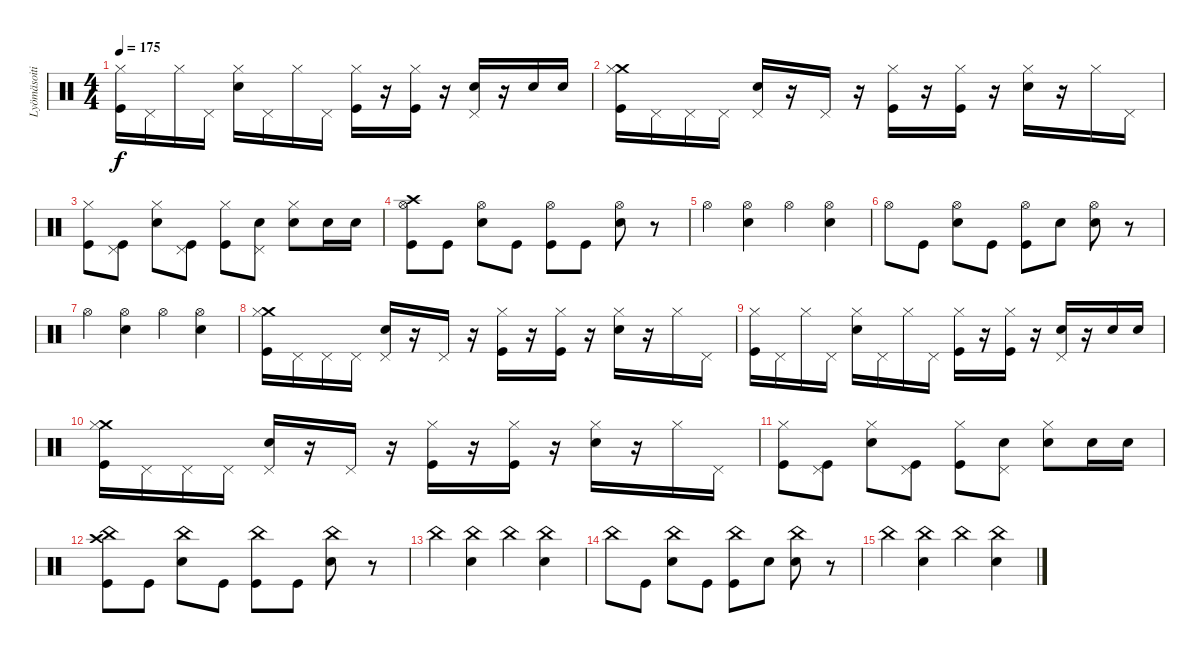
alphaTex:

\track ("Lyömäsoitin" "Lyömäsoiti") {instrument percussion}
\staff {score}
\articulation defaults
\ts (4 4)
\tempo 175
\clef neutral
\ks c
("Hi-Hat (closed)" "Kick (hit)").16{dy f} "Pedal Hi-Hat (hit)".16 "Hi-Hat (closed)".16 "Pedal Hi-Hat (hit)".16 ("Hi-Hat (closed)" "Snare (hit) 2").16 "Pedal Hi-Hat (hit)".16 "Hi-Hat (closed)".16 "Pedal Hi-Hat (hit)".16 ("Hi-Hat (closed)" "Kick (hit)").16 r.16 ("Hi-Hat (closed)" "Kick (hit)").16 r.16 ("Pedal Hi-Hat (hit)" "Snare (hit) 2").16 r.16 "Snare (hit) 2".16 "Snare (hit) 2".16 |
("Crash medium (hit)" "Hi-Hat (closed)" "Kick (hit)").16 "Pedal Hi-Hat (hit)".16 "Pedal Hi-Hat (hit)".16 "Pedal Hi-Hat (hit)".16 ("Pedal Hi-Hat (hit)" "Snare (hit) 2").16 r.16 "Pedal Hi-Hat (hit)".16 r.16 ("Hi-Hat (closed)" "Kick (hit)").16 r.16 ("Hi-Hat (closed)" "Kick (hit)").16 r.16 ("Hi-Hat (closed)" "Snare (hit) 2").16 r.16 "Hi-Hat (closed)".16 "Pedal Hi-Hat (hit)".16 |
("Hi-Hat (closed)" "Kick (hit)").8 ("Pedal Hi-Hat (hit)" "Kick (hit)").8 ("Hi-Hat (closed)" "Snare (hit) 2").8 ("Pedal Hi-Hat (hit)" "Kick (hit)").8 ("Hi-Hat (closed)" "Kick (hit)").8 ("Pedal Hi-Hat (hit)" "Snare (hit) 2").8 ("Hi-Hat (closed)" "Snare (hit) 2").8 "Snare (hit) 2".16 "Snare (hit) 2".16 |
("Crash high (hit)" "Hi-Hat (open)" "Kick (hit)").8 "Kick (hit)".8 ("Hi-Hat (open)" "Snare (hit) 2").8 "Kick (hit)".8 ("Hi-Hat (open)" "Kick (hit)").8 "Kick (hit)".8 ("Hi-Hat (open)" "Snare (hit) 2").8 r.8 |
"Hi-Hat (open)".4 ("Hi-Hat (open)" "Snare (hit) 2").4 "Hi-Hat (open)".4 ("Hi-Hat (open)" "Snare (hit) 2").4 |
"Hi-Hat (open)".8 "Kick (hit)".8 ("Hi-Hat (open)" "Snare (hit) 2").8 "Kick (hit)".8 ("Hi-Hat (open)" "Kick (hit)").8 "Snare (hit) 2".8 ("Hi-Hat (open)" "Snare (hit) 2").8 r.8 |
"Hi-Hat (open)".4 ("Hi-Hat (open)" "Snare (hit) 2").4 "Hi-Hat (open)".4 ("Hi-Hat (open)" "Snare (hit) 2").4 |
("Crash medium (hit)" "Hi-Hat (closed)" "Kick (hit)").16 "Pedal Hi-Hat (hit)".16 "Pedal Hi-Hat (hit)".16 "Pedal Hi-Hat (hit)".16 ("Pedal Hi-Hat (hit)" "Snare (hit) 2").16 r.16 "Pedal Hi-Hat (hit)".16 r.16 ("Hi-Hat (closed)" "Kick (hit)").16 r.16 ("Hi-Hat (closed)" "Kick (hit)").16 r.16 ("Hi-Hat (closed)" "Snare (hit) 2").16 r.16 "Hi-Hat (closed)".16 "Pedal Hi-Hat (hit)".16 |
("Hi-Hat (closed)" "Kick (hit)").16 "Pedal Hi-Hat (hit)".16 "Hi-Hat (closed)".16 "Pedal Hi-Hat (hit)".16 ("Hi-Hat (closed)" "Snare (hit) 2").16 "Pedal Hi-Hat (hit)".16 "Hi-Hat (closed)".16 "Pedal Hi-Hat (hit)".16 ("Hi-Hat (closed)" "Kick (hit)").16 r.16 ("Hi-Hat (closed)" "Kick (hit)").16 r.16 ("Pedal Hi-Hat (hit)" "Snare (hit) 2").16 r.16 "Snare (hit) 2".16 "Snare (hit) 2".16 |
("Crash medium (hit)" "Hi-Hat (closed)" "Kick (hit)").16 "Pedal Hi-Hat (hit)".16 "Pedal Hi-Hat (hit)".16 "Pedal Hi-Hat (hit)".16 ("Pedal Hi-Hat (hit)" "Snare (hit) 2").16 r.16 "Pedal Hi-Hat (hit)".16 r.16 ("Hi-Hat (closed)" "Kick (hit)").16 r.16 ("Hi-Hat (closed)" "Kick (hit)").16 r.16 ("Hi-Hat (closed)" "Snare (hit) 2").16 r.16 "Hi-Hat (closed)".16 "Pedal Hi-Hat (hit)".16 |
("Hi-Hat (closed)" "Kick (hit)").8 ("Pedal Hi-Hat (hit)" "Kick (hit)").8 ("Hi-Hat (closed)" "Snare (hit) 2").8 ("Pedal Hi-Hat (hit)" "Kick (hit)").8 ("Hi-Hat (closed)" "Kick (hit)").8 ("Pedal Hi-Hat (hit)" "Snare (hit) 2").8 ("Hi-Hat (closed)" "Snare (hit) 2").8 "Snare (hit) 2".16 "Snare (hit) 2".16 |
("Crash high (hit)" "China (hit)" "Kick (hit)").8 "Kick (hit)".8 ("China (hit)" "Snare (hit) 2").8 "Kick (hit)".8 ("China (hit)" "Kick (hit)").8 "Kick (hit)".8 ("China (hit)" "Snare (hit) 2").8 r.8 |
"China (hit)".4 ("China (hit)" "Snare (hit) 2").4 "China (hit)".4 ("China (hit)" "Snare (hit) 2").4 |
"China (hit)".8 "Kick (hit)".8 ("China (hit)" "Snare (hit) 2").8 "Kick (hit)".8 ("China (hit)" "Kick (hit)").8 "Snare (hit) 2".8 ("China (hit)" "Snare (hit) 2").8 r.8 |
"China (hit)".4 ("China (hit)" "Snare (hit) 2").4 "China (hit)".4 ("China (hit)" "Snare (hit) 2").4
